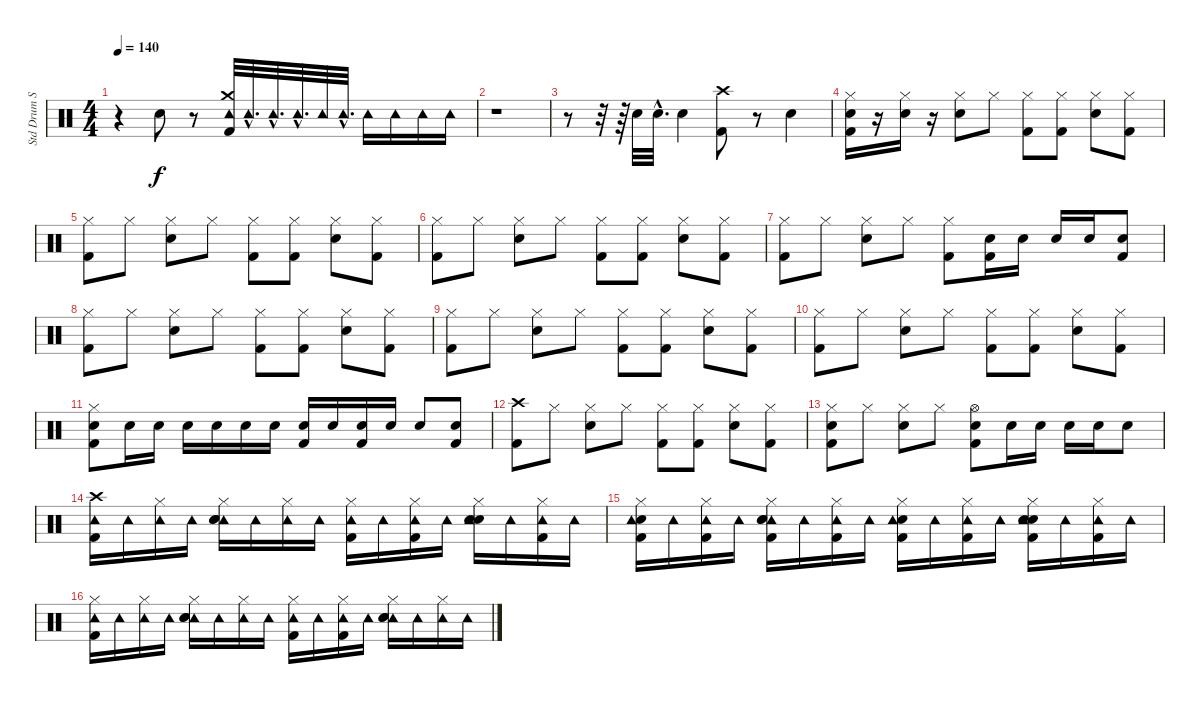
\track ("Std Drum Set" "Std Drum S") {instrument percussion}
\staff {score}
\articulation defaults
\ts (4 4)
\tempo 140
\clef neutral
\ks c
r.4{dy f} "Snare (hit) 2".8 r.8 ("Kick (hit) 2" "Crash medium (hit)" "Tambourine (hit)").32 "Tambourine (hit)"{hac}.32{d} "Tambourine (hit)"{hac}.32{d} "Tambourine (hit)"{hac}.32{d} "Tambourine (hit)".32 "Tambourine (hit)"{hac}.32{d} "Tambourine (hit)".16 "Tambourine (hit)".16 "Tambourine (hit)".16 "Tambourine (hit)".16 |
r.1 |
r.8 r.32 r.64 "Snare (hit) 2".32 "Snare (hit) 2"{hac}.32{d} "Snare (hit) 2".4 ("Crash high (hit)" "Kick (hit) 2").8 r.8 "Snare (hit) 2".4 |
("Hi-Hat (closed)" "Hand Clap (hit)" "Kick (hit) 2").16 r.16 ("Hi-Hat (closed)" "Hand Clap (hit)").16 r.16 ("Hi-Hat (closed)" "Snare (hit) 2").8 "Hi-Hat (closed)".8 ("Hi-Hat (closed)" "Kick (hit) 2").8 ("Hi-Hat (closed)" "Kick (hit) 2").8 ("Hi-Hat (closed)" "Snare (hit) 2").8 ("Kick (hit) 2" "Hi-Hat (closed)").8 |
("Hi-Hat (closed)" "Kick (hit) 2").8 "Hi-Hat (closed)".8 ("Hi-Hat (closed)" "Snare (hit) 2").8 "Hi-Hat (closed)".8 ("Hi-Hat (closed)" "Kick (hit) 2").8 ("Kick (hit) 2" "Hi-Hat (closed)").8 ("Snare (hit) 2" "Hi-Hat (closed)").8 ("Kick (hit) 2" "Hi-Hat (closed)").8 |
("Kick (hit) 2" "Hi-Hat (closed)").8 "Hi-Hat (closed)".8 ("Hi-Hat (closed)" "Snare (hit) 2").8 "Hi-Hat (closed)".8 ("Hi-Hat (closed)" "Kick (hit) 2").8 ("Hi-Hat (closed)" "Kick (hit) 2").8 ("Hi-Hat (closed)" "Snare (hit) 2").8 ("Hi-Hat (closed)" "Kick (hit) 2").8 |
("Kick (hit) 2" "Hi-Hat (closed)").8 "Hi-Hat (closed)".8 ("Snare (hit) 2" "Hi-Hat (closed)").8 "Hi-Hat (closed)".8 ("Kick (hit) 2" "Hi-Hat (closed)").8 ("Kick (hit) 2" "Snare (hit) 2").16 "Snare (hit) 2".16 "Snare (hit) 2".16 "Snare (hit) 2".16 ("Snare (hit) 2" "Kick (hit) 2").8 |
("Hi-Hat (closed)" "Kick (hit) 2").8 "Hi-Hat (closed)".8 ("Snare (hit) 2" "Hi-Hat (closed)").8 "Hi-Hat (closed)".8 ("Kick (hit) 2" "Hi-Hat (closed)").8 ("Kick (hit) 2" "Hi-Hat (closed)").8 ("Hi-Hat (closed)" "Snare (hit) 2").8 ("Kick (hit) 2" "Hi-Hat (closed)").8 |
("Hi-Hat (closed)" "Kick (hit) 2").8 "Hi-Hat (closed)".8 ("Snare (hit) 2" "Hi-Hat (closed)").8 "Hi-Hat (closed)".8 ("Kick (hit) 2" "Hi-Hat (closed)").8 ("Kick (hit) 2" "Hi-Hat (closed)").8 ("Hi-Hat (closed)" "Snare (hit) 2").8 ("Kick (hit) 2" "Hi-Hat (closed)").8 |
("Kick (hit) 2" "Hi-Hat (closed)").8 "Hi-Hat (closed)".8 ("Snare (hit) 2" "Hi-Hat (closed)").8 "Hi-Hat (closed)".8 ("Kick (hit) 2" "Hi-Hat (closed)").8 ("Kick (hit) 2" "Hi-Hat (closed)").8 ("Snare (hit) 2" "Hi-Hat (closed)").8 ("Kick (hit) 2" "Hi-Hat (closed)").8 |
("Hi-Hat (closed)" "Kick (hit) 2" "Snare (hit) 2").8 "Snare (hit) 2".16 "Snare (hit) 2".16 "Snare (hit) 2".16 "Snare (hit) 2".16 "Snare (hit) 2".16 "Snare (hit) 2".16 ("Snare (hit) 2" "Kick (hit) 2").16 "Snare (hit) 2".16 ("Snare (hit) 2" "Kick (hit) 2").16 "Snare (hit) 2".16 "Snare (hit) 2".8 ("Kick (hit) 2" "Snare (hit) 2").8 |
("Kick (hit) 2" "Crash high (hit)").8 "Hi-Hat (closed)".8 ("Snare (hit) 2" "Hi-Hat (closed)").8 "Hi-Hat (closed)".8 ("Kick (hit) 2" "Hi-Hat (closed)").8 ("Hi-Hat (closed)" "Kick (hit) 2").8 ("Snare (hit) 2" "Hi-Hat (closed)").8 ("Kick (hit) 2" "Hi-Hat (closed)").8 |
("Snare (hit) 2" "Hi-Hat (closed)" "Kick (hit) 2").8 "Hi-Hat (closed)".8 ("Hi-Hat (closed)" "Snare (hit) 2").8 "Hi-Hat (closed)".8 ("Snare (hit) 2" "Hi-Hat (open)" "Kick (hit) 2").8 "Snare (hit) 2".16 "Snare (hit) 2".16 "Snare (hit) 2".16 "Snare (hit) 2".16 "Snare (hit) 2".8 |
("Crash high (hit)" "Tambourine (hit)" "Kick (hit) 2").16 "Tambourine (hit)".16 ("Tambourine (hit)" "Hi-Hat (closed)").16 "Tambourine (hit)".16 ("Tambourine (hit)" "Hand Clap (hit)" "Hi-Hat (closed)" "Snare (hit) 2").16 "Tambourine (hit)".16 ("Hi-Hat (closed)" "Tambourine (hit)").16 "Tambourine (hit)".16 ("Hi-Hat (closed)" "Tambourine (hit)" "Kick (hit) 2").16 "Tambourine (hit)".16 ("Kick (hit) 2" "Hi-Hat (closed)" "Tambourine (hit)").16 "Tambourine (hit)".16 ("Hand Clap (hit)" "Snare (hit) 2" "Hi-Hat (closed)" "Tambourine (hit)").16 "Tambourine (hit)".16 ("Tambourine (hit)" "Kick (hit) 2" "Hi-Hat (closed)").16 "Tambourine (hit)".16 |
("Kick (hit) 2" "Snare (hit) 2" "Tambourine (hit)" "Hi-Hat (closed)").16 "Tambourine (hit)".16 ("Tambourine (hit)" "Kick (hit) 2" "Hi-Hat (closed)").16 "Tambourine (hit)".16 ("Kick (hit) 2" "Tambourine (hit)" "Snare (hit) 2" "Hi-Hat (closed)" "Hand Clap (hit)").16 "Tambourine (hit)".16 ("Tambourine (hit)" "Hi-Hat (closed)" "Kick (hit) 2").16 "Tambourine (hit)".16 ("Snare (hit) 2" "Tambourine (hit)" "Kick (hit) 2" "Hi-Hat (closed)").16 "Tambourine (hit)".16 ("Hi-Hat (closed)" "Tambourine (hit)" "Kick (hit) 2").16 "Tambourine (hit)".16 ("Kick (hit) 2" "Hand Clap (hit)" "Tambourine (hit)" "Snare (hit) 2" "Hi-Hat (closed)").16 "Tambourine (hit)".16 ("Kick (hit) 2" "Hi-Hat (closed)" "Tambourine (hit)").16 "Tambourine (hit)".16 |
("Kick (hit) 2" "Hi-Hat (closed)" "Tambourine (hit)").16 "Tambourine (hit)".16 ("Tambourine (hit)" "Hi-Hat (closed)").16 "Tambourine (hit)".16 ("Tambourine (hit)" "Hand Clap (hit)" "Snare (hit) 2" "Hi-Hat (closed)").16 "Tambourine (hit)".16 ("Hi-Hat (closed)" "Tambourine (hit)").16 "Tambourine (hit)".16 ("Hi-Hat (closed)" "Kick (hit) 2" "Tambourine (hit)").16 "Tambourine (hit)".16 ("Hi-Hat (closed)" "Tambourine (hit)" "Kick (hit) 2").16 "Tambourine (hit)".16 ("Tambourine (hit)" "Hand Clap (hit)" "Hi-Hat (closed)" "Snare (hit) 2").16 "Tambourine (hit)".16 ("Tambourine (hit)" "Hi-Hat (closed)").16 "Tambourine (hit)".16
